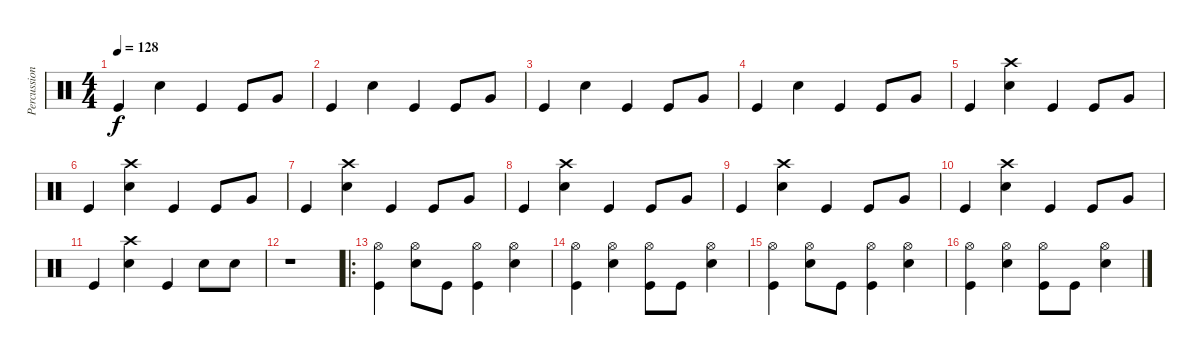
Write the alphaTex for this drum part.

\track ("Percussion" "Percussion") {instrument percussion}
\staff {score}
\articulation defaults
\ts (4 4)
\tempo 128
\clef neutral
\ks c "Kick (hit)".4{dy f} "Snare (hit) 2".4 "Kick (hit)".4 "Kick (hit)".8 "Very Low Tom (hit)".8
|
"Kick (hit)".4 "Snare (hit) 2".4 "Kick (hit)".4 "Kick (hit)".8 "Very Low Tom (hit)".8 |
"Kick (hit)".4 "Snare (hit) 2".4 "Kick (hit)".4 "Kick (hit)".8 "Very Low Tom (hit)".8 |
"Kick (hit)".4 "Snare (hit) 2".4 "Kick (hit)".4 "Kick (hit)".8 "Very Low Tom (hit)".8 |
"Kick (hit)".4 ("Crash high (hit)" "Snare (hit) 2").4 "Kick (hit)".4 "Kick (hit)".8 "Very Low Tom (hit)".8 |
"Kick (hit)".4 ("Crash high (hit)" "Snare (hit) 2").4 "Kick (hit)".4 "Kick (hit)".8 "Very Low Tom (hit)".8 |
"Kick (hit)".4 ("Crash high (hit)" "Snare (hit) 2").4 "Kick (hit)".4 "Kick (hit)".8 "Very Low Tom (hit)".8 |
"Kick (hit)".4 ("Crash high (hit)" "Snare (hit) 2").4 "Kick (hit)".4 "Kick (hit)".8 "Very Low Tom (hit)".8 |
"Kick (hit)".4 ("Crash high (hit)" "Snare (hit) 2").4 "Kick (hit)".4 "Kick (hit)".8 "Very Low Tom (hit)".8 |
"Kick (hit)".4 ("Crash high (hit)" "Snare (hit) 2").4 "Kick (hit)".4 "Kick (hit)".8 "Very Low Tom (hit)".8 |
"Kick (hit)".4 ("Crash high (hit)" "Snare (hit) 2").4 "Kick (hit)".4 "Snare (hit) 2".8 "Snare (hit) 2".8 |
r.1 |
\ro
("Hi-Hat (open)" "Kick (hit)").4 ("Hi-Hat (open)" "Snare (hit) 2").8 "Kick (hit)".8 ("Hi-Hat (open)" "Kick (hit)").4 ("Hi-Hat (open)" "Snare (hit) 2").4 |
("Hi-Hat (open)" "Kick (hit)").4 ("Hi-Hat (open)" "Snare (hit) 2").4 ("Hi-Hat (open)" "Kick (hit)").8 "Kick (hit)".8 ("Hi-Hat (open)" "Snare (hit) 2").4 |
("Hi-Hat (open)" "Kick (hit)").4 ("Hi-Hat (open)" "Snare (hit) 2").8 "Kick (hit)".8 ("Hi-Hat (open)" "Kick (hit)").4 ("Hi-Hat (open)" "Snare (hit) 2").4 |
("Hi-Hat (open)" "Kick (hit)").4 ("Hi-Hat (open)" "Snare (hit) 2").4 ("Hi-Hat (open)" "Kick (hit)").8 "Kick (hit)".8 ("Hi-Hat (open)" "Snare (hit) 2").4
